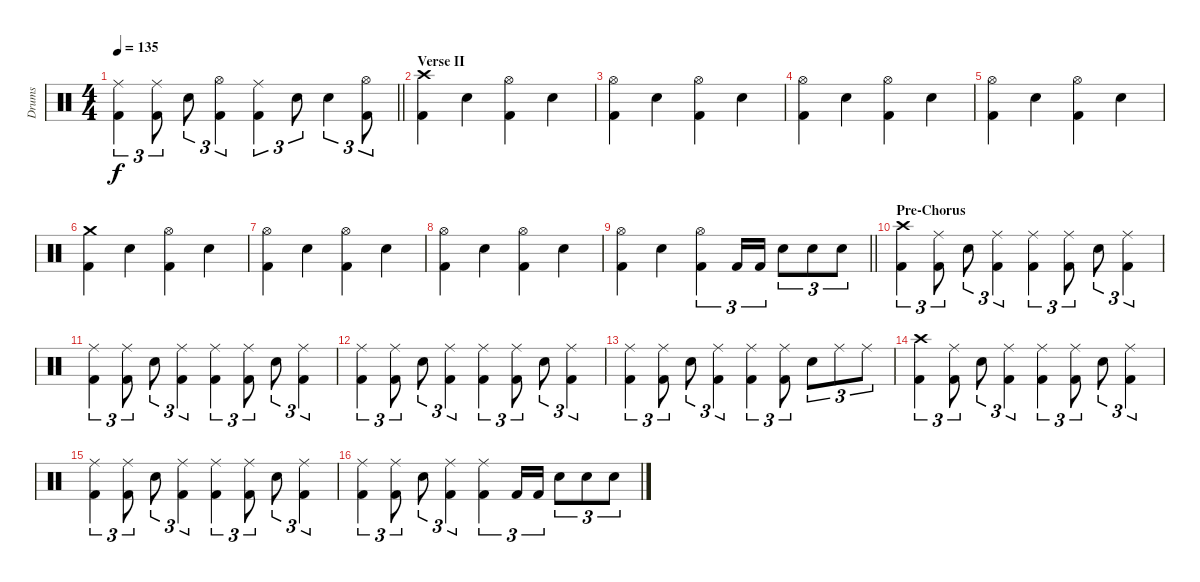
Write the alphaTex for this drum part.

\track ("Drums" "Drums") {instrument percussion}
\staff {score}
\articulation defaults
\ts (4 4)
\tempo 135
\clef neutral
\barLineRight lightlight
\ks c
("Ride (middle)" "Kick (hit) 2").4{tu (3 2) dy f} ("Ride (middle)" "Kick (hit) 2").8{tu (3 2)} "Snare (hit) 2".8{tu (3 2)} ("Hi-Hat (open)" "Kick (hit) 2").4{tu (3 2)} ("Ride (middle)" "Kick (hit) 2").4{tu (3 2)} "Snare (hit) 2".8{tu (3 2)} "Snare (hit) 2".4{tu (3 2)} ("Hi-Hat (open)" "Kick (hit) 2").8{tu (3 2)} |
\section ("" "Verse II")
("Crash high (hit)" "Kick (hit) 2").4 "Snare (hit) 2".4 ("Hi-Hat (open)" "Kick (hit) 2").4 "Snare (hit) 2".4 |
("Hi-Hat (open)" "Kick (hit) 2").4 "Snare (hit) 2".4 ("Hi-Hat (open)" "Kick (hit) 2").4 "Snare (hit) 2".4 |
("Hi-Hat (open)" "Kick (hit) 2").4 "Snare (hit) 2".4 ("Hi-Hat (open)" "Kick (hit) 2").4 "Snare (hit) 2".4 |
("Hi-Hat (open)" "Kick (hit) 2").4 "Snare (hit) 2".4 ("Hi-Hat (open)" "Kick (hit) 2").4 "Snare (hit) 2".4 |
("Crash medium (hit)" "Kick (hit) 2").4 "Snare (hit) 2".4 ("Hi-Hat (open)" "Kick (hit) 2").4 "Snare (hit) 2".4 |
("Hi-Hat (open)" "Kick (hit) 2").4 "Snare (hit) 2".4 ("Hi-Hat (open)" "Kick (hit) 2").4 "Snare (hit) 2".4 |
("Hi-Hat (open)" "Kick (hit) 2").4 "Snare (hit) 2".4 ("Hi-Hat (open)" "Kick (hit) 2").4 "Snare (hit) 2".4 |
\barLineRight lightlight
("Hi-Hat (open)" "Kick (hit) 2").4 "Snare (hit) 2".4 ("Hi-Hat (open)" "Kick (hit) 2").4{tu (3 2)} "Kick (hit) 2".16{tu (3 2)} "Kick (hit) 2".16{tu (3 2)} "Snare (hit) 2".8{tu (3 2)} "Snare (hit) 2".8{tu (3 2)} "Snare (hit) 2".8{tu (3 2)} |
\section ("" "Pre-Chorus")
("Crash high (hit)" "Kick (hit) 2").4{tu (3 2)} ("Ride (middle)" "Kick (hit) 2").8{tu (3 2)} "Snare (hit) 2".8{tu (3 2)} ("Ride (middle)" "Kick (hit) 2").4{tu (3 2)} ("Ride (middle)" "Kick (hit) 2").4{tu (3 2)} ("Ride (middle)" "Kick (hit) 2").8{tu (3 2)} "Snare (hit) 2".8{tu (3 2)} ("Ride (middle)" "Kick (hit) 2").4{tu (3 2)} |
("Ride (middle)" "Kick (hit) 2").4{tu (3 2)} ("Ride (middle)" "Kick (hit) 2").8{tu (3 2)} "Snare (hit) 2".8{tu (3 2)} ("Ride (middle)" "Kick (hit) 2").4{tu (3 2)} ("Ride (middle)" "Kick (hit) 2").4{tu (3 2)} ("Ride (middle)" "Kick (hit) 2").8{tu (3 2)} "Snare (hit) 2".8{tu (3 2)} ("Ride (middle)" "Kick (hit) 2").4{tu (3 2)} |
("Ride (middle)" "Kick (hit) 2").4{tu (3 2)} ("Ride (middle)" "Kick (hit) 2").8{tu (3 2)} "Snare (hit) 2".8{tu (3 2)} ("Ride (middle)" "Kick (hit) 2").4{tu (3 2)} ("Ride (middle)" "Kick (hit) 2").4{tu (3 2)} ("Ride (middle)" "Kick (hit) 2").8{tu (3 2)} "Snare (hit) 2".8{tu (3 2)} ("Ride (middle)" "Kick (hit) 2").4{tu (3 2)} |
("Ride (middle)" "Kick (hit) 2").4{tu (3 2)} ("Ride (middle)" "Kick (hit) 2").8{tu (3 2)} "Snare (hit) 2".8{tu (3 2)} ("Ride (middle)" "Kick (hit) 2").4{tu (3 2)} ("Ride (middle)" "Kick (hit) 2").4{tu (3 2)} ("Ride (middle)" "Kick (hit) 2").8{tu (3 2)} "Snare (hit) 2".8{tu (3 2)} "Ride (middle)".8{tu (3 2)} "Ride (middle)".8{tu (3 2)} |
("Crash high (hit)" "Kick (hit) 2").4{tu (3 2)} ("Ride (middle)" "Kick (hit) 2").8{tu (3 2)} "Snare (hit) 2".8{tu (3 2)} ("Ride (middle)" "Kick (hit) 2").4{tu (3 2)} ("Ride (middle)" "Kick (hit) 2").4{tu (3 2)} ("Ride (middle)" "Kick (hit) 2").8{tu (3 2)} "Snare (hit) 2".8{tu (3 2)} ("Ride (middle)" "Kick (hit) 2").4{tu (3 2)} |
("Ride (middle)" "Kick (hit) 2").4{tu (3 2)} ("Ride (middle)" "Kick (hit) 2").8{tu (3 2)} "Snare (hit) 2".8{tu (3 2)} ("Ride (middle)" "Kick (hit) 2").4{tu (3 2)} ("Ride (middle)" "Kick (hit) 2").4{tu (3 2)} ("Ride (middle)" "Kick (hit) 2").8{tu (3 2)} "Snare (hit) 2".8{tu (3 2)} ("Ride (middle)" "Kick (hit) 2").4{tu (3 2)} |
("Ride (middle)" "Kick (hit) 2").4{tu (3 2)} ("Ride (middle)" "Kick (hit) 2").8{tu (3 2)} "Snare (hit) 2".8{tu (3 2)} ("Ride (middle)" "Kick (hit) 2").4{tu (3 2)} ("Ride (middle)" "Kick (hit) 2").4{tu (3 2)} "Kick (hit) 2".16{tu (3 2)} "Kick (hit) 2".16{tu (3 2)} "Snare (hit) 2".8{tu (3 2)} "Snare (hit) 2".8{tu (3 2)} "Snare (hit) 2".8{tu (3 2)}
